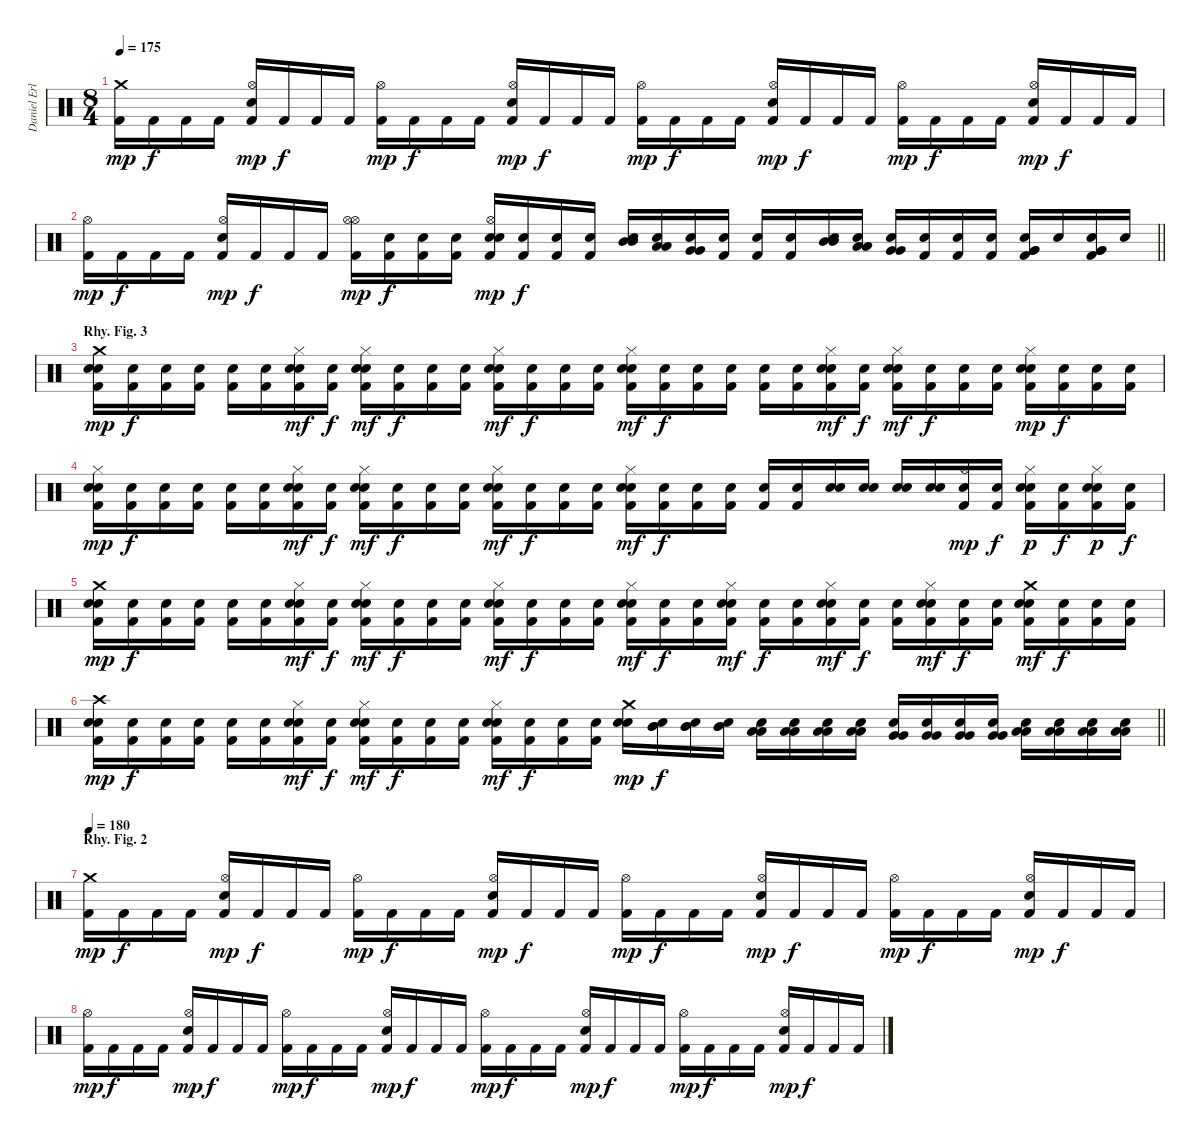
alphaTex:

\track ("Daniel Erlandson" "Daniel Erl") {instrument percussion}
\staff {score}
\articulation defaults
\ts (8 4)
\tempo 175
\clef neutral
\ks c
("Crash medium (hit)" "Kick (hit) 2").16{dy mp} "Kick (hit) 2".16{dy f} "Kick (hit) 2".16 "Kick (hit) 2".16 ("Hi-Hat (open)" "Electric Snare (hit)" "Kick (hit) 2").16{dy mp} "Kick (hit) 2".16{dy f} "Kick (hit) 2".16 "Kick (hit) 2".16 ("Hi-Hat (open)" "Kick (hit) 2").16{dy mp} "Kick (hit) 2".16{dy f} "Kick (hit) 2".16 "Kick (hit) 2".16 ("Hi-Hat (open)" "Electric Snare (hit)" "Kick (hit) 2").16{dy mp} "Kick (hit) 2".16{dy f} "Kick (hit) 2".16 "Kick (hit) 2".16 ("Hi-Hat (open)" "Kick (hit) 2").16{dy mp} "Kick (hit) 2".16{dy f} "Kick (hit) 2".16 "Kick (hit) 2".16 ("Hi-Hat (open)" "Electric Snare (hit)" "Kick (hit) 2").16{dy mp} "Kick (hit) 2".16{dy f} "Kick (hit) 2".16 "Kick (hit) 2".16 ("Hi-Hat (open)" "Kick (hit) 2").16{dy mp} "Kick (hit) 2".16{dy f} "Kick (hit) 2".16 "Kick (hit) 2".16 ("Hi-Hat (open)" "Electric Snare (hit)" "Kick (hit) 2").16{dy mp} "Kick (hit) 2".16{dy f} "Kick (hit) 2".16 "Kick (hit) 2".16 |
\barLineRight lightlight
("Hi-Hat (open)" "Kick (hit) 2").16{dy mp} "Kick (hit) 2".16{dy f} "Kick (hit) 2".16 "Kick (hit) 2".16 ("Hi-Hat (open)" "Electric Snare (hit)" "Kick (hit) 2").16{dy mp} "Kick (hit) 2".16{dy f} "Kick (hit) 2".16 "Kick (hit) 2".16 ("Hi-Hat (open)"{x} "Hi-Hat (open)" "Kick (hit) 2").16{dy mp} ("Snare (hit)"{x} "Kick (hit) 2").16{dy f} ("Snare (hit)"{x} "Kick (hit) 2").16 ("Snare (hit)"{x} "Kick (hit) 2").16 ("Snare (hit)"{x} "Hi-Hat (open)" "Electric Snare (hit)" "Kick (hit) 2").16{dy mp} ("Snare (hit)"{x} "Kick (hit) 2").16{dy f} ("Snare (hit)"{x} "Kick (hit) 2").16 ("Snare (hit)"{x} "Kick (hit) 2").16 ("Snare (hit)"{x} "Mid Tom (hit)" "Mid Tom (hit)").16 ("Snare (hit)"{x} "Low Tom (hit)" "Low Tom (hit)").16 ("Snare (hit)"{x} "Very Low Tom (hit)" "Very Low Tom (hit)").16 ("Snare (hit)"{x} "Kick (hit) 2").16 ("Snare (hit)"{x} "Kick (hit) 2").16 ("Snare (hit)"{x} "Kick (hit) 2").16 ("Snare (hit)"{x} "Mid Tom (hit)" "Mid Tom (hit)").16 ("Snare (hit)"{x} "Low Tom (hit)" "Low Tom (hit)").16 ("Snare (hit)"{x} "Very Low Tom (hit)" "Very Low Tom (hit)").16 ("Snare (hit)"{x} "Kick (hit) 2").16 ("Snare (hit)"{x} "Kick (hit) 2").16 ("Snare (hit)"{x} "Kick (hit) 2").16 ("Snare (hit)"{x} "Very Low Tom (hit)" "Very Low Tom (hit)" "Kick (hit) 2").16 "Snare (hit)"{x}.16 ("Snare (hit)"{x} "Very Low Tom (hit)" "Very Low Tom (hit)" "Kick (hit) 2").16 "Snare (hit)"{x}.16 |
\section ("" "Rhy. Fig. 3")
("Snare (hit)"{x} "Crash medium (hit)" "Electric Snare (hit)" "Kick (hit) 2").16{dy mp} ("Snare (hit)"{x} "Kick (hit) 2").16{dy f} ("Snare (hit)"{x} "Kick (hit) 2").16 ("Snare (hit)"{x} "Kick (hit) 2").16 ("Snare (hit)"{x} "Kick (hit) 2").16 ("Snare (hit)"{x} "Kick (hit) 2").16 ("Snare (hit)"{x} "Hi-Hat (closed)" "Electric Snare (hit)" "Kick (hit) 2").16{dy mf} ("Snare (hit)"{x} "Kick (hit) 2").16{dy f} ("Snare (hit)"{x} "Hi-Hat (closed)" "Electric Snare (hit)" "Kick (hit) 2").16{dy mf} ("Snare (hit)"{x} "Kick (hit) 2").16{dy f} ("Snare (hit)"{x} "Kick (hit) 2").16 ("Snare (hit)"{x} "Kick (hit) 2").16 ("Snare (hit)"{x} "Hi-Hat (closed)" "Electric Snare (hit)" "Kick (hit) 2").16{dy mf} ("Snare (hit)"{x} "Kick (hit) 2").16{dy f} ("Snare (hit)"{x} "Kick (hit) 2").16 ("Snare (hit)"{x} "Kick (hit) 2").16 ("Snare (hit)"{x} "Hi-Hat (closed)" "Electric Snare (hit)" "Kick (hit) 2").16{dy mf} ("Snare (hit)"{x} "Kick (hit) 2").16{dy f} ("Snare (hit)"{x} "Kick (hit) 2").16 ("Snare (hit)"{x} "Kick (hit) 2").16 ("Snare (hit)"{x} "Kick (hit) 2").16 ("Snare (hit)"{x} "Kick (hit) 2").16 ("Snare (hit)"{x} "Hi-Hat (closed)" "Electric Snare (hit)" "Kick (hit) 2").16{dy mf} ("Snare (hit)"{x} "Kick (hit) 2").16{dy f} ("Snare (hit)"{x} "Hi-Hat (closed)" "Electric Snare (hit)" "Kick (hit) 2").16{dy mf} ("Snare (hit)"{x} "Kick (hit) 2").16{dy f} ("Snare (hit)"{x} "Kick (hit) 2").16 ("Snare (hit)"{x} "Kick (hit) 2").16 ("Snare (hit)"{x} "Hi-Hat (closed)" "Electric Snare (hit)" "Kick (hit) 2").16{dy mp} ("Snare (hit)"{x} "Kick (hit) 2").16{dy f} ("Snare (hit)"{x} "Kick (hit) 2").16 ("Snare (hit)"{x} "Kick (hit) 2").16 |
("Snare (hit)"{x} "Hi-Hat (closed)" "Electric Snare (hit)" "Kick (hit) 2").16{dy mp} ("Snare (hit)"{x} "Kick (hit) 2").16{dy f} ("Snare (hit)"{x} "Kick (hit) 2").16 ("Snare (hit)"{x} "Kick (hit) 2").16 ("Snare (hit)"{x} "Kick (hit) 2").16 ("Snare (hit)"{x} "Kick (hit) 2").16 ("Snare (hit)"{x} "Hi-Hat (closed)" "Electric Snare (hit)" "Kick (hit) 2").16{dy mf} ("Snare (hit)"{x} "Kick (hit) 2").16{dy f} ("Snare (hit)"{x} "Hi-Hat (closed)" "Electric Snare (hit)" "Kick (hit) 2").16{dy mf} ("Snare (hit)"{x} "Kick (hit) 2").16{dy f} ("Snare (hit)"{x} "Kick (hit) 2").16 ("Snare (hit)"{x} "Kick (hit) 2").16 ("Snare (hit)"{x} "Hi-Hat (closed)" "Electric Snare (hit)" "Kick (hit) 2").16{dy mf} ("Snare (hit)"{x} "Kick (hit) 2").16{dy f} ("Snare (hit)"{x} "Kick (hit) 2").16 ("Snare (hit)"{x} "Kick (hit) 2").16 ("Snare (hit)"{x} "Hi-Hat (closed)" "Electric Snare (hit)" "Kick (hit) 2").16{dy mf} ("Snare (hit)"{x} "Kick (hit) 2").16{dy f} ("Snare (hit)"{x} "Kick (hit) 2").16 ("Snare (hit)"{x} "Kick (hit) 2").16 ("Snare (hit)"{x} "Kick (hit) 2").16 ("Snare (hit)"{x} "Kick (hit) 2").16 ("Snare (hit)"{x} "Electric Snare (hit)").16 ("Snare (hit)"{x} "Electric Snare (hit)").16 ("Snare (hit)"{x} "Electric Snare (hit)").16 ("Snare (hit)"{x} "Electric Snare (hit)").16 ("Snare (hit)"{x} "Hi-Hat (open)" "Kick (hit) 2").16{dy mp} ("Snare (hit)"{x} "Kick (hit) 2").16{dy f} ("Snare (hit)"{x} "Hi-Hat (closed)" "Electric Snare (hit)" "Kick (hit) 2").16{dy p} ("Snare (hit)"{x} "Kick (hit) 2").16{dy f} ("Snare (hit)"{x} "Hi-Hat (closed)" "Electric Snare (hit)" "Kick (hit) 2").16{dy p} ("Snare (hit)"{x} "Kick (hit) 2").16{dy f} |
("Snare (hit)"{x} "Crash medium (hit)" "Electric Snare (hit)" "Kick (hit) 2").16{dy mp} ("Snare (hit)"{x} "Kick (hit) 2").16{dy f} ("Snare (hit)"{x} "Kick (hit) 2").16 ("Snare (hit)"{x} "Kick (hit) 2").16 ("Snare (hit)"{x} "Kick (hit) 2").16 ("Snare (hit)"{x} "Kick (hit) 2").16 ("Snare (hit)"{x} "Hi-Hat (closed)" "Electric Snare (hit)" "Kick (hit) 2").16{dy mf} ("Snare (hit)"{x} "Kick (hit) 2").16{dy f} ("Snare (hit)"{x} "Hi-Hat (closed)" "Electric Snare (hit)" "Kick (hit) 2").16{dy mf} ("Snare (hit)"{x} "Kick (hit) 2").16{dy f} ("Snare (hit)"{x} "Kick (hit) 2").16 ("Snare (hit)"{x} "Kick (hit) 2").16 ("Snare (hit)"{x} "Hi-Hat (closed)" "Electric Snare (hit)" "Kick (hit) 2").16{dy mf} ("Snare (hit)"{x} "Kick (hit) 2").16{dy f} ("Snare (hit)"{x} "Kick (hit) 2").16 ("Snare (hit)"{x} "Kick (hit) 2").16 ("Snare (hit)"{x} "Hi-Hat (closed)" "Electric Snare (hit)" "Kick (hit) 2").16{dy mf} ("Snare (hit)"{x} "Kick (hit) 2").16{dy f} ("Snare (hit)"{x} "Kick (hit) 2").16 ("Snare (hit)"{x} "Hi-Hat (closed)" "Electric Snare (hit)" "Kick (hit) 2").16{dy mf} ("Snare (hit)"{x} "Kick (hit) 2").16{dy f} ("Snare (hit)"{x} "Kick (hit) 2").16 ("Snare (hit)"{x} "Hi-Hat (closed)" "Electric Snare (hit)" "Kick (hit) 2").16{dy mf} ("Snare (hit)"{x} "Kick (hit) 2").16{dy f} ("Snare (hit)"{x} "Kick (hit) 2").16 ("Snare (hit)"{x} "Hi-Hat (closed)" "Electric Snare (hit)" "Kick (hit) 2").16{dy mf} ("Snare (hit)"{x} "Kick (hit) 2").16{dy f} ("Snare (hit)"{x} "Kick (hit) 2").16 ("Snare (hit)"{x} "Crash medium (hit)" "Electric Snare (hit)" "Kick (hit) 2").16{dy mf} ("Snare (hit)"{x} "Kick (hit) 2").16{dy f} ("Snare (hit)"{x} "Kick (hit) 2").16 ("Snare (hit)"{x} "Kick (hit) 2").16 |
\barLineRight lightlight
("Snare (hit)"{x} "Crash high (hit)" "Electric Snare (hit)" "Kick (hit) 2").16{dy mp} ("Snare (hit)"{x} "Kick (hit) 2").16{dy f} ("Snare (hit)"{x} "Kick (hit) 2").16 ("Snare (hit)"{x} "Kick (hit) 2").16 ("Snare (hit)"{x} "Kick (hit) 2").16 ("Snare (hit)"{x} "Kick (hit) 2").16 ("Snare (hit)"{x} "Hi-Hat (closed)" "Electric Snare (hit)" "Kick (hit) 2").16{dy mf} ("Snare (hit)"{x} "Kick (hit) 2").16{dy f} ("Snare (hit)"{x} "Hi-Hat (closed)" "Electric Snare (hit)" "Kick (hit) 2").16{dy mf} ("Snare (hit)"{x} "Kick (hit) 2").16{dy f} ("Snare (hit)"{x} "Kick (hit) 2").16 ("Snare (hit)"{x} "Kick (hit) 2").16 ("Snare (hit)"{x} "Hi-Hat (closed)" "Electric Snare (hit)" "Kick (hit) 2").16{dy mf} ("Snare (hit)"{x} "Kick (hit) 2").16{dy f} ("Snare (hit)"{x} "Kick (hit) 2").16 ("Snare (hit)"{x} "Kick (hit) 2").16 ("Snare (hit)"{x} "Crash medium (hit)" "Electric Snare (hit)").16{dy mp} ("Snare (hit)"{x} "Mid Tom (hit)" "Mid Tom (hit)").16{dy f} ("Snare (hit)"{x} "Mid Tom (hit)" "Mid Tom (hit)").16 ("Snare (hit)"{x} "Mid Tom (hit)" "Mid Tom (hit)").16 ("Snare (hit)"{x} "Low Tom (hit)" "Low Tom (hit)").16 ("Snare (hit)"{x} "Low Tom (hit)" "Low Tom (hit)").16 ("Snare (hit)"{x} "Low Tom (hit)" "Low Tom (hit)").16 ("Snare (hit)"{x} "Low Tom (hit)" "Low Tom (hit)").16 ("Snare (hit)"{x} "Very Low Tom (hit)" "Very Low Tom (hit)").16 ("Snare (hit)"{x} "Very Low Tom (hit)" "Very Low Tom (hit)").16 ("Snare (hit)"{x} "Very Low Tom (hit)" "Very Low Tom (hit)").16 ("Snare (hit)"{x} "Very Low Tom (hit)" "Very Low Tom (hit)").16 ("Snare (hit)"{x} "Low Floor Tom (hit)" "Low Floor Tom (hit)").16 ("Snare (hit)"{x} "Low Floor Tom (hit)" "Low Floor Tom (hit)").16 ("Snare (hit)"{x} "Low Floor Tom (hit)" "Low Floor Tom (hit)").16 ("Snare (hit)"{x} "Low Floor Tom (hit)" "Low Floor Tom (hit)").16 |
\section ("" "Rhy. Fig. 2")
\tempo 180
("Crash medium (hit)" "Kick (hit) 2").16{dy mp} "Kick (hit) 2".16{dy f} "Kick (hit) 2".16 "Kick (hit) 2".16 ("Hi-Hat (open)" "Electric Snare (hit)" "Kick (hit) 2").16{dy mp} "Kick (hit) 2".16{dy f} "Kick (hit) 2".16 "Kick (hit) 2".16 ("Hi-Hat (open)" "Kick (hit) 2").16{dy mp} "Kick (hit) 2".16{dy f} "Kick (hit) 2".16 "Kick (hit) 2".16 ("Hi-Hat (open)" "Electric Snare (hit)" "Kick (hit) 2").16{dy mp} "Kick (hit) 2".16{dy f} "Kick (hit) 2".16 "Kick (hit) 2".16 ("Hi-Hat (open)" "Kick (hit) 2").16{dy mp} "Kick (hit) 2".16{dy f} "Kick (hit) 2".16 "Kick (hit) 2".16 ("Hi-Hat (open)" "Electric Snare (hit)" "Kick (hit) 2").16{dy mp} "Kick (hit) 2".16{dy f} "Kick (hit) 2".16 "Kick (hit) 2".16 ("Hi-Hat (open)" "Kick (hit) 2").16{dy mp} "Kick (hit) 2".16{dy f} "Kick (hit) 2".16 "Kick (hit) 2".16 ("Hi-Hat (open)" "Electric Snare (hit)" "Kick (hit) 2").16{dy mp} "Kick (hit) 2".16{dy f} "Kick (hit) 2".16 "Kick (hit) 2".16 |
("Hi-Hat (open)" "Kick (hit) 2").16{dy mp} "Kick (hit) 2".16{dy f} "Kick (hit) 2".16 "Kick (hit) 2".16 ("Hi-Hat (open)" "Electric Snare (hit)" "Kick (hit) 2").16{dy mp} "Kick (hit) 2".16{dy f} "Kick (hit) 2".16 "Kick (hit) 2".16 ("Hi-Hat (open)" "Kick (hit) 2").16{dy mp} "Kick (hit) 2".16{dy f} "Kick (hit) 2".16 "Kick (hit) 2".16 ("Hi-Hat (open)" "Electric Snare (hit)" "Kick (hit) 2").16{dy mp} "Kick (hit) 2".16{dy f} "Kick (hit) 2".16 "Kick (hit) 2".16 ("Hi-Hat (open)" "Kick (hit) 2").16{dy mp} "Kick (hit) 2".16{dy f} "Kick (hit) 2".16 "Kick (hit) 2".16 ("Hi-Hat (open)" "Electric Snare (hit)" "Kick (hit) 2").16{dy mp} "Kick (hit) 2".16{dy f} "Kick (hit) 2".16 "Kick (hit) 2".16 ("Hi-Hat (open)" "Kick (hit) 2").16{dy mp} "Kick (hit) 2".16{dy f} "Kick (hit) 2".16 "Kick (hit) 2".16 ("Hi-Hat (open)" "Electric Snare (hit)" "Kick (hit) 2").16{dy mp} "Kick (hit) 2".16{dy f} "Kick (hit) 2".16 "Kick (hit) 2".16
